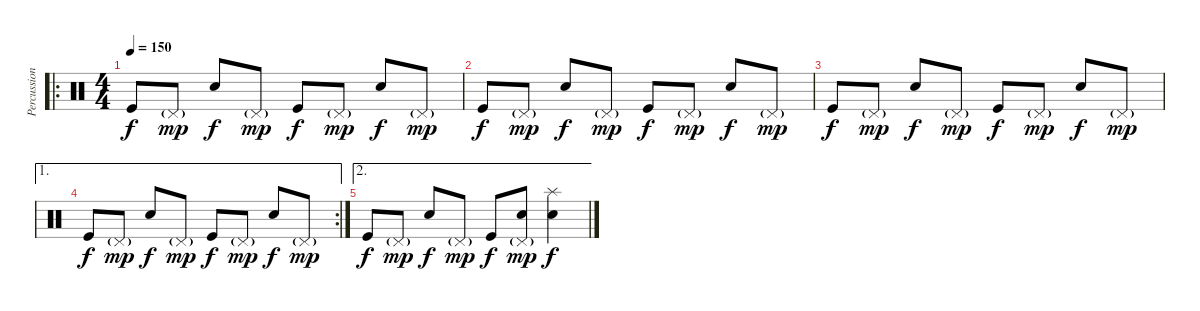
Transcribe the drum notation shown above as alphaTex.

\track ("Percussion" "Percussion") {instrument percussion}
\staff {score}
\articulation defaults
\ro
\ts (4 4)
\tempo 150
\clef neutral
\ks c "Kick (hit)".8{dy f} "Pedal Hi-Hat (hit)"{g}.8{dy mp} "Snare (hit) 2".8{dy f} "Pedal Hi-Hat (hit)"{g}.8{dy mp} "Kick (hit)".8{dy f} "Pedal Hi-Hat (hit)"{g}.8{dy mp} "Snare (hit) 2".8{dy f} "Pedal Hi-Hat (hit)"{g}.8{dy mp}
|
"Kick (hit)".8{dy f} "Pedal Hi-Hat (hit)"{g}.8{dy mp} "Snare (hit) 2".8{dy f} "Pedal Hi-Hat (hit)"{g}.8{dy mp} "Kick (hit)".8{dy f} "Pedal Hi-Hat (hit)"{g}.8{dy mp} "Snare (hit) 2".8{dy f} "Pedal Hi-Hat (hit)"{g}.8{dy mp} |
"Kick (hit)".8{dy f} "Pedal Hi-Hat (hit)"{g}.8{dy mp} "Snare (hit) 2".8{dy f} "Pedal Hi-Hat (hit)"{g}.8{dy mp} "Kick (hit)".8{dy f} "Pedal Hi-Hat (hit)"{g}.8{dy mp} "Snare (hit) 2".8{dy f} "Pedal Hi-Hat (hit)"{g}.8{dy mp} |
\ae 1
\rc 2 "Kick (hit)".8{dy f} "Pedal Hi-Hat (hit)"{g}.8{dy mp} "Snare (hit) 2".8{dy f} "Pedal Hi-Hat (hit)"{g}.8{dy mp} "Kick (hit)".8{dy f} "Pedal Hi-Hat (hit)"{g}.8{dy mp} "Snare (hit) 2".8{dy f} "Pedal Hi-Hat (hit)"{g}.8{dy mp}
|
\ae 2 "Kick (hit)".8{dy f} "Pedal Hi-Hat (hit)"{g}.8{dy mp} "Snare (hit) 2".8{dy f} "Pedal Hi-Hat (hit)"{g}.8{dy mp} "Kick (hit)".8{dy f}
("Pedal Hi-Hat (hit)"{g} "Snare (hit) 2").8{dy mp} ("Splash (hit)" "Snare (hit) 2").4{dy f}
